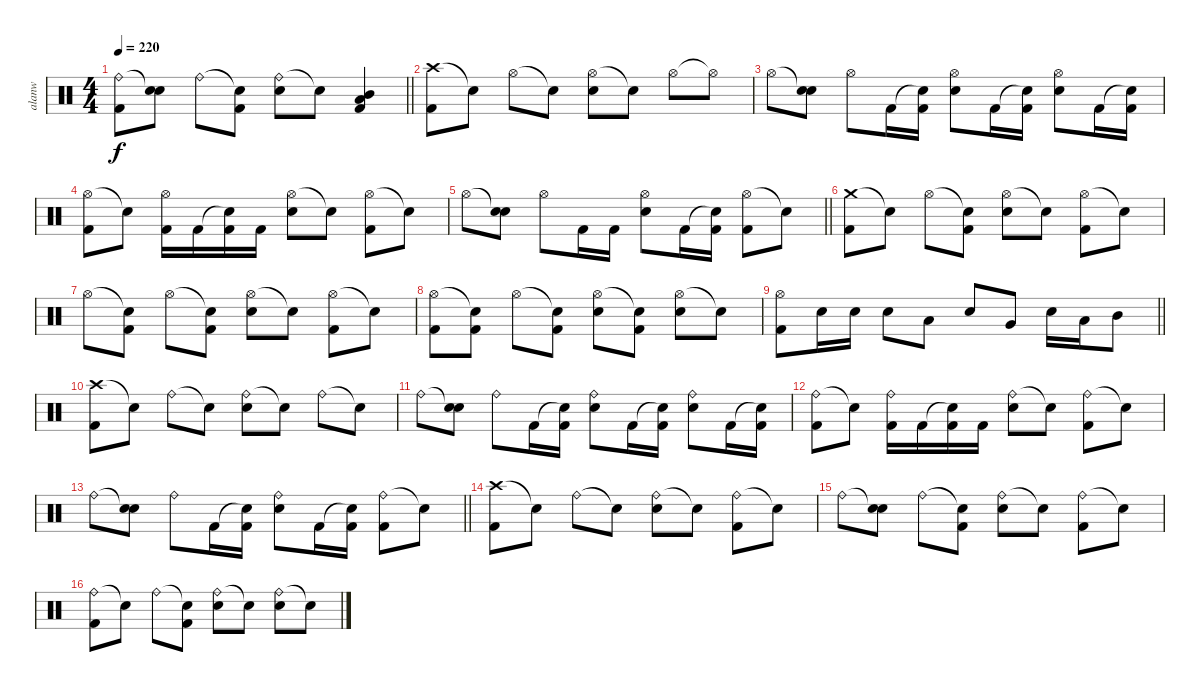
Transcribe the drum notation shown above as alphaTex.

\track ("alanw" "alanw") {instrument percussion}
\staff {score}
\articulation defaults
\ts (4 4)
\tempo 220
\clef neutral
\barLineRight lightlight
\ks c
("Ride (bell)" "Kick (hit) 2").8{dy f} ("Snare (hit)"{t} "Electric Snare (hit)").8 "Ride (bell)".8 ("Snare (hit)"{t} "Kick (hit) 2").8 ("Ride (bell)" "Electric Snare (hit)").8 "Snare (hit)"{t}.8 ("Mid Tom (hit)" "Low Tom (hit)" "Kick (hit) 2").4 |
("Crash high (hit)" "Kick (hit) 2").8 "Snare (hit)"{t}.8 "Hi-Hat (open)".8 "Snare (hit)"{t}.8 ("Hi-Hat (open)" "Electric Snare (hit)").8 "Snare (hit)"{t}.8 "Hi-Hat (open)".8 "Hi-Hat (open)"{t}.8 |
"Hi-Hat (open)".8 ("Snare (hit)"{t} "Electric Snare (hit)").8 "Hi-Hat (open)".8 "Kick (hit) 2".16 ("Snare (hit)"{t} "Kick (hit) 2").16 ("Hi-Hat (open)" "Electric Snare (hit)").8 "Kick (hit) 2".16 ("Snare (hit)"{t} "Kick (hit) 2").16 ("Hi-Hat (open)" "Electric Snare (hit)").8 "Kick (hit) 2".16 ("Snare (hit)"{t} "Kick (hit) 2").16 |
("Hi-Hat (open)" "Kick (hit) 2").8 "Snare (hit)"{t}.8 ("Hi-Hat (open)" "Kick (hit) 2").16 "Kick (hit) 2".16 ("Snare (hit)"{t} "Kick (hit) 2").16 "Kick (hit) 2".16 ("Hi-Hat (open)" "Electric Snare (hit)").8 "Snare (hit)"{t}.8 ("Hi-Hat (open)" "Kick (hit) 2").8 "Snare (hit)"{t}.8 |
\barLineRight lightlight "Hi-Hat (open)".8
("Snare (hit)"{t} "Electric Snare (hit)").8 "Hi-Hat (open)".8 "Kick (hit) 2".16 "Kick (hit) 2".16 ("Hi-Hat (open)" "Electric Snare (hit)").8 "Kick (hit) 2".16 ("Snare (hit)"{t} "Kick (hit) 2").16 ("Hi-Hat (open)" "Kick (hit) 2").8 "Snare (hit)"{t}.8 |
("Crash medium (hit)" "Kick (hit) 2").8 "Snare (hit)"{t}.8 "Hi-Hat (open)".8 ("Snare (hit)"{t} "Kick (hit) 2").8 ("Hi-Hat (open)" "Electric Snare (hit)").8 "Snare (hit)"{t}.8 ("Hi-Hat (open)" "Kick (hit) 2").8 "Snare (hit)"{t}.8 |
"Hi-Hat (open)".8 ("Snare (hit)"{t} "Kick (hit) 2").8 "Hi-Hat (open)".8 ("Snare (hit)"{t} "Kick (hit) 2").8 ("Hi-Hat (open)" "Electric Snare (hit)").8 "Snare (hit)"{t}.8 ("Hi-Hat (open)" "Kick (hit) 2").8 "Snare (hit)"{t}.8 |
("Hi-Hat (open)" "Kick (hit) 2").8 ("Snare (hit)"{t} "Kick (hit) 2").8 "Hi-Hat (open)".8 ("Snare (hit)"{t} "Kick (hit) 2").8 ("Hi-Hat (open)" "Electric Snare (hit)").8 ("Snare (hit)"{t} "Kick (hit) 2").8 ("Hi-Hat (open)" "Electric Snare (hit)").8 "Snare (hit)"{t}.8 |
\barLineRight lightlight
("Hi-Hat (open)" "Kick (hit) 2").8 "Electric Snare (hit)".16 "Electric Snare (hit)".16 "Electric Snare (hit)".8 "Low Tom (hit)".8 "Electric Snare (hit)".8 "Very Low Tom (hit)".8 "Electric Snare (hit)".16 "Low Tom (hit)".16 "Mid Tom (hit)".8 |
("Crash high (hit)" "Kick (hit) 2").8 "Snare (hit)"{t}.8 "Ride (bell)".8 "Snare (hit)"{t}.8 ("Ride (bell)" "Electric Snare (hit)").8 "Snare (hit)"{t}.8 "Ride (bell)".8 "Snare (hit)"{t}.8 |
"Ride (bell)".8 ("Snare (hit)"{t} "Electric Snare (hit)").8 "Ride (bell)".8 "Kick (hit) 2".16 ("Snare (hit)"{t} "Kick (hit) 2").16 ("Ride (bell)" "Electric Snare (hit)").8 "Kick (hit) 2".16 ("Snare (hit)"{t} "Kick (hit) 2").16 ("Ride (bell)" "Electric Snare (hit)").8 "Kick (hit) 2".16 ("Snare (hit)"{t} "Kick (hit) 2").16 |
("Ride (bell)" "Kick (hit) 2").8 "Snare (hit)"{t}.8 ("Ride (bell)" "Kick (hit) 2").16 "Kick (hit) 2".16 ("Snare (hit)"{t} "Kick (hit) 2").16 "Kick (hit) 2".16 ("Ride (bell)" "Electric Snare (hit)").8 "Snare (hit)"{t}.8 ("Ride (bell)" "Kick (hit) 2").8 "Snare (hit)"{t}.8 |
\barLineRight lightlight "Ride (bell)".8
("Snare (hit)"{t} "Electric Snare (hit)").8 "Ride (bell)".8 "Kick (hit) 2".16 ("Snare (hit)"{t} "Kick (hit) 2").16 ("Ride (bell)" "Electric Snare (hit)").8 "Kick (hit) 2".16 ("Snare (hit)"{t} "Kick (hit) 2").16 ("Ride (bell)" "Kick (hit) 2").8 "Snare (hit)"{t}.8 |
("Crash high (hit)" "Kick (hit) 2").8 "Snare (hit)"{t}.8 "Ride (bell)".8 "Snare (hit)"{t}.8 ("Ride (bell)" "Electric Snare (hit)").8 "Snare (hit)"{t}.8 ("Ride (bell)" "Kick (hit) 2").8 "Snare (hit)"{t}.8 |
"Ride (bell)".8 ("Snare (hit)"{t} "Electric Snare (hit)").8 "Ride (bell)".8 ("Snare (hit)"{t} "Kick (hit) 2").8 ("Ride (bell)" "Electric Snare (hit)").8 "Snare (hit)"{t}.8 ("Ride (bell)" "Kick (hit) 2").8 "Snare (hit)"{t}.8 |
("Ride (bell)" "Kick (hit) 2").8 "Snare (hit)"{t}.8 "Ride (bell)".8 ("Snare (hit)"{t} "Kick (hit) 2").8 ("Ride (bell)" "Electric Snare (hit)").8 "Snare (hit)"{t}.8 ("Ride (bell)" "Electric Snare (hit)").8 "Snare (hit)"{t}.8
